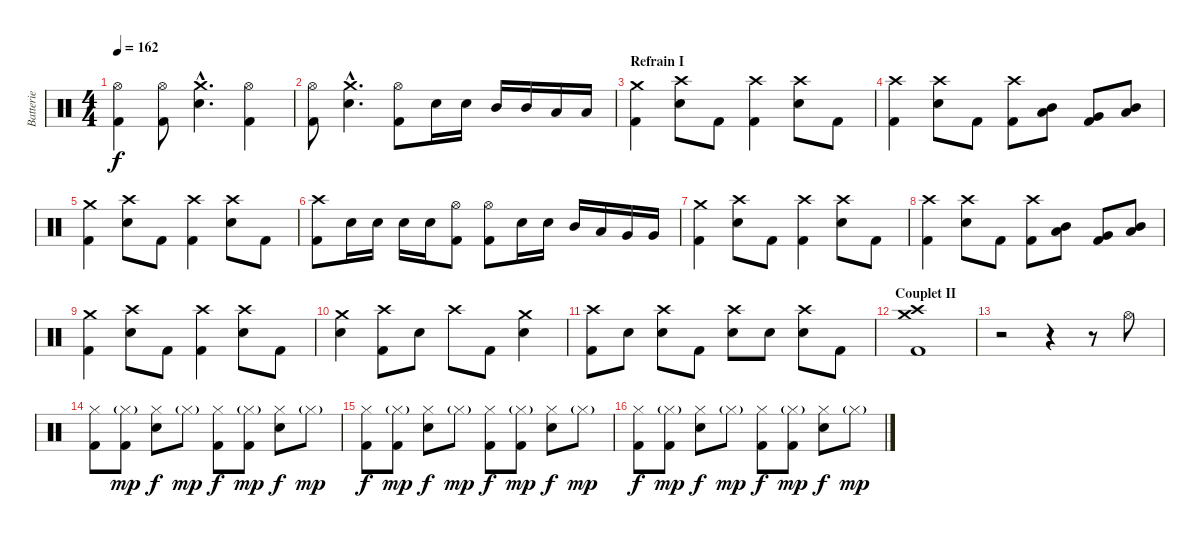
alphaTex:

\track ("Batterie" "Batterie") {instrument percussion}
\staff {score}
\articulation defaults
\ts (4 4)
\tempo 162
\clef neutral
\ks c
("Hi-Hat (open)" "Kick (hit) 2").4{dy f} ("Hi-Hat (open)" "Kick (hit) 2").8 ("Crash medium (hit)"{hac} "Electric Snare (hit)"{hac}).4{d} ("Hi-Hat (open)" "Kick (hit) 2").4 |
("Hi-Hat (open)" "Kick (hit) 2").8 ("Crash medium (hit)"{hac} "Electric Snare (hit)"{hac}).4{d} ("Hi-Hat (open)" "Kick (hit) 2").8 "Electric Snare (hit)".16 "Electric Snare (hit)".16 "Mid Tom (hit)".16 "Mid Tom (hit)".16 "Low Tom (hit)".16 "Low Tom (hit)".16 |
\section ("" "Refrain I")
("Crash medium (hit)" "Kick (hit) 2").4 ("Crash high (hit)" "Electric Snare (hit)").8 "Kick (hit) 2".8 ("Crash high (hit)" "Kick (hit) 2").4 ("Crash high (hit)" "Electric Snare (hit)").8 "Kick (hit) 2".8 |
("Crash high (hit)" "Kick (hit) 2").4 ("Crash high (hit)" "Electric Snare (hit)").8 "Kick (hit) 2".8 ("Crash high (hit)" "Kick (hit) 2").8 ("Mid Tom (hit)" "Low Tom (hit)").8 ("Very Low Tom (hit)" "Kick (hit) 2").8 ("Mid Tom (hit)" "Low Tom (hit)").8 |
("Crash medium (hit)" "Kick (hit) 2").4 ("Crash high (hit)" "Electric Snare (hit)").8 "Kick (hit) 2".8 ("Crash high (hit)" "Kick (hit) 2").4 ("Crash high (hit)" "Electric Snare (hit)").8 "Kick (hit) 2".8 |
("Crash high (hit)" "Kick (hit) 2").8 "Electric Snare (hit)".16 "Electric Snare (hit)".16 "Electric Snare (hit)".16 "Electric Snare (hit)".16 ("Hi-Hat (open)" "Kick (hit) 2").8 ("Hi-Hat (open)" "Kick (hit) 2").8 "Electric Snare (hit)".16 "Electric Snare (hit)".16 "Mid Tom (hit)".16 "Low Tom (hit)".16 "Very Low Tom (hit)".16 "Very Low Tom (hit)".16 |
("Crash medium (hit)" "Kick (hit) 2").4 ("Crash high (hit)" "Electric Snare (hit)").8 "Kick (hit) 2".8 ("Crash high (hit)" "Kick (hit) 2").4 ("Crash high (hit)" "Electric Snare (hit)").8 "Kick (hit) 2".8 |
("Crash high (hit)" "Kick (hit) 2").4 ("Crash high (hit)" "Electric Snare (hit)").8 "Kick (hit) 2".8 ("Crash high (hit)" "Kick (hit) 2").8 ("Mid Tom (hit)" "Low Tom (hit)").8 ("Very Low Tom (hit)" "Kick (hit) 2").8 ("Mid Tom (hit)" "Low Tom (hit)").8 |
("Crash medium (hit)" "Kick (hit) 2").4 ("Crash high (hit)" "Electric Snare (hit)").8 "Kick (hit) 2".8 ("Crash high (hit)" "Kick (hit) 2").4 ("Crash high (hit)" "Electric Snare (hit)").8 "Kick (hit) 2".8 |
("Crash medium (hit)" "Electric Snare (hit)").4 ("Crash high (hit)" "Kick (hit) 2").8 "Electric Snare (hit)".8 "Crash high (hit)".8 "Kick (hit) 2".8 ("Crash medium (hit)" "Electric Snare (hit)").4 |
("Crash high (hit)" "Kick (hit) 2").8 "Electric Snare (hit)".8 ("Crash high (hit)" "Electric Snare (hit)").8 "Kick (hit) 2".8 ("Crash high (hit)" "Electric Snare (hit)").8 "Electric Snare (hit)".8 ("Crash high (hit)" "Electric Snare (hit)").8 "Kick (hit) 2".8 |
\section ("" "Couplet II")
("Crash high (hit)" "Crash medium (hit)" "Kick (hit) 2").1 |
r.2 r.4 r.8 "Hi-Hat (open)".8 |
("Hi-Hat (closed)" "Kick (hit) 2").8 ("Hi-Hat (closed)"{g} "Kick (hit) 2").8{dy mp} ("Hi-Hat (closed)" "Electric Snare (hit)").8{dy f} "Hi-Hat (closed)"{g}.8{dy mp} ("Hi-Hat (closed)" "Kick (hit) 2").8{dy f} ("Hi-Hat (closed)"{g} "Kick (hit) 2").8{dy mp} ("Hi-Hat (closed)" "Electric Snare (hit)").8{dy f} "Hi-Hat (closed)"{g}.8{dy mp} |
("Hi-Hat (closed)" "Kick (hit) 2").8{dy f} ("Hi-Hat (closed)"{g} "Kick (hit) 2").8{dy mp} ("Hi-Hat (closed)" "Electric Snare (hit)").8{dy f} "Hi-Hat (closed)"{g}.8{dy mp} ("Hi-Hat (closed)" "Kick (hit) 2").8{dy f} ("Hi-Hat (closed)"{g} "Kick (hit) 2").8{dy mp} ("Hi-Hat (closed)" "Electric Snare (hit)").8{dy f} "Hi-Hat (closed)"{g}.8{dy mp} |
("Hi-Hat (closed)" "Kick (hit) 2").8{dy f} ("Hi-Hat (closed)"{g} "Kick (hit) 2").8{dy mp} ("Hi-Hat (closed)" "Electric Snare (hit)").8{dy f} "Hi-Hat (closed)"{g}.8{dy mp} ("Hi-Hat (closed)" "Kick (hit) 2").8{dy f} ("Hi-Hat (closed)"{g} "Kick (hit) 2").8{dy mp} ("Hi-Hat (closed)" "Electric Snare (hit)").8{dy f} "Hi-Hat (closed)"{g}.8{dy mp}
